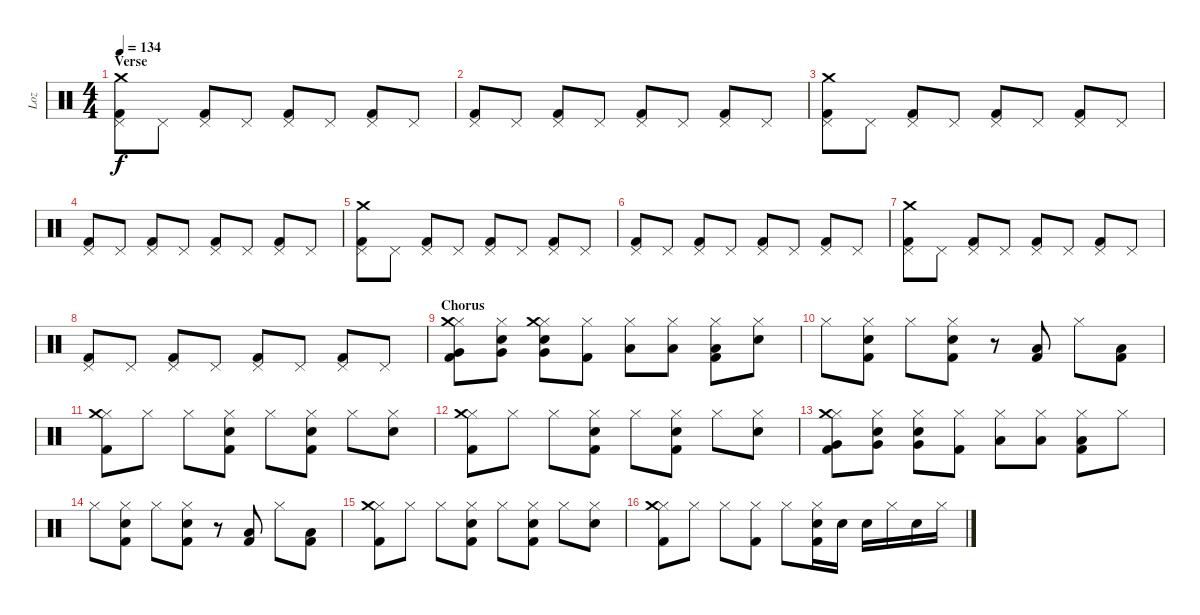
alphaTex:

\track ("Loz" "Loz") {instrument percussion}
\staff {score}
\articulation defaults
\ts (4 4)
\section ("" "Verse")
\tempo 134
\clef neutral
\ks c
("Crash medium (hit)" "Pedal Hi-Hat (hit)" "Kick (hit) 2").8{dy f} "Pedal Hi-Hat (hit)".8 ("Pedal Hi-Hat (hit)" "Kick (hit) 2").8 "Pedal Hi-Hat (hit)".8 ("Pedal Hi-Hat (hit)" "Kick (hit) 2").8 "Pedal Hi-Hat (hit)".8 ("Pedal Hi-Hat (hit)" "Kick (hit) 2").8 "Pedal Hi-Hat (hit)".8 |
("Pedal Hi-Hat (hit)" "Kick (hit) 2").8 "Pedal Hi-Hat (hit)".8 ("Pedal Hi-Hat (hit)" "Kick (hit) 2").8 "Pedal Hi-Hat (hit)".8 ("Pedal Hi-Hat (hit)" "Kick (hit) 2").8 "Pedal Hi-Hat (hit)".8 ("Pedal Hi-Hat (hit)" "Kick (hit) 2").8 "Pedal Hi-Hat (hit)".8 |
("Crash medium (hit)" "Pedal Hi-Hat (hit)" "Kick (hit) 2").8 "Pedal Hi-Hat (hit)".8 ("Pedal Hi-Hat (hit)" "Kick (hit) 2").8 "Pedal Hi-Hat (hit)".8 ("Pedal Hi-Hat (hit)" "Kick (hit) 2").8 "Pedal Hi-Hat (hit)".8 ("Pedal Hi-Hat (hit)" "Kick (hit) 2").8 "Pedal Hi-Hat (hit)".8 |
("Pedal Hi-Hat (hit)" "Kick (hit) 2").8 "Pedal Hi-Hat (hit)".8 ("Pedal Hi-Hat (hit)" "Kick (hit) 2").8 "Pedal Hi-Hat (hit)".8 ("Pedal Hi-Hat (hit)" "Kick (hit) 2").8 "Pedal Hi-Hat (hit)".8 ("Pedal Hi-Hat (hit)" "Kick (hit) 2").8 "Pedal Hi-Hat (hit)".8 |
("Crash medium (hit)" "Pedal Hi-Hat (hit)" "Kick (hit) 2").8 "Pedal Hi-Hat (hit)".8 ("Pedal Hi-Hat (hit)" "Kick (hit) 2").8 "Pedal Hi-Hat (hit)".8 ("Pedal Hi-Hat (hit)" "Kick (hit) 2").8 "Pedal Hi-Hat (hit)".8 ("Pedal Hi-Hat (hit)" "Kick (hit) 2").8 "Pedal Hi-Hat (hit)".8 |
("Pedal Hi-Hat (hit)" "Kick (hit) 2").8 "Pedal Hi-Hat (hit)".8 ("Pedal Hi-Hat (hit)" "Kick (hit) 2").8 "Pedal Hi-Hat (hit)".8 ("Pedal Hi-Hat (hit)" "Kick (hit) 2").8 "Pedal Hi-Hat (hit)".8 ("Pedal Hi-Hat (hit)" "Kick (hit) 2").8 "Pedal Hi-Hat (hit)".8 |
("Crash medium (hit)" "Pedal Hi-Hat (hit)" "Kick (hit) 2").8 "Pedal Hi-Hat (hit)".8 ("Pedal Hi-Hat (hit)" "Kick (hit) 2").8 "Pedal Hi-Hat (hit)".8 ("Pedal Hi-Hat (hit)" "Kick (hit) 2").8 "Pedal Hi-Hat (hit)".8 ("Pedal Hi-Hat (hit)" "Kick (hit) 2").8 "Pedal Hi-Hat (hit)".8 |
("Pedal Hi-Hat (hit)" "Kick (hit) 2").8 "Pedal Hi-Hat (hit)".8 ("Pedal Hi-Hat (hit)" "Kick (hit) 2").8 "Pedal Hi-Hat (hit)".8 ("Pedal Hi-Hat (hit)" "Kick (hit) 2").8 "Pedal Hi-Hat (hit)".8 ("Pedal Hi-Hat (hit)" "Kick (hit) 2").8 "Pedal Hi-Hat (hit)".8 |
\section ("" "Chorus")
("Hi-Hat (closed)" "Crash medium (hit)" "Very Low Tom (hit)" "Kick (hit) 2").8 ("Hi-Hat (closed)" "Electric Snare (hit)" "Very Low Tom (hit)").8 ("Hi-Hat (closed)" "Crash medium (hit)" "Electric Snare (hit)" "Very Low Tom (hit)").8 ("Hi-Hat (closed)" "Kick (hit) 2").8 ("Hi-Hat (closed)" "Low Floor Tom (hit)").8 ("Hi-Hat (closed)" "Low Floor Tom (hit)").8 ("Hi-Hat (closed)" "Low Floor Tom (hit)" "Kick (hit) 2").8 ("Hi-Hat (closed)" "Electric Snare (hit)").8 |
"Hi-Hat (closed)".8 ("Hi-Hat (closed)" "Electric Snare (hit)" "Kick (hit) 2").8 "Hi-Hat (closed)".8 ("Hi-Hat (closed)" "Electric Snare (hit)" "Kick (hit) 2").8 r.8 ("Low Floor Tom (hit)" "Kick (hit) 2").8 "Hi-Hat (closed)".8 ("Low Floor Tom (hit)" "Kick (hit) 2").8 |
("Hi-Hat (closed)" "Crash medium (hit)" "Kick (hit) 2").8 "Hi-Hat (closed)".8 "Hi-Hat (closed)".8 ("Hi-Hat (closed)" "Electric Snare (hit)" "Kick (hit) 2").8 "Hi-Hat (closed)".8 ("Hi-Hat (closed)" "Electric Snare (hit)" "Kick (hit) 2").8 "Hi-Hat (closed)".8 ("Hi-Hat (closed)" "Electric Snare (hit)").8 |
("Hi-Hat (closed)" "Crash medium (hit)" "Kick (hit) 2").8 "Hi-Hat (closed)".8 "Hi-Hat (closed)".8 ("Hi-Hat (closed)" "Electric Snare (hit)" "Kick (hit) 2").8 "Hi-Hat (closed)".8 ("Hi-Hat (closed)" "Electric Snare (hit)" "Kick (hit) 2").8 "Hi-Hat (closed)".8 ("Hi-Hat (closed)" "Electric Snare (hit)").8 |
("Hi-Hat (closed)" "Crash medium (hit)" "Very Low Tom (hit)" "Kick (hit) 2").8 ("Hi-Hat (closed)" "Electric Snare (hit)" "Very Low Tom (hit)").8 ("Hi-Hat (closed)" "Electric Snare (hit)" "Very Low Tom (hit)").8 ("Hi-Hat (closed)" "Kick (hit) 2").8 ("Hi-Hat (closed)" "Low Floor Tom (hit)").8 ("Hi-Hat (closed)" "Low Floor Tom (hit)").8 ("Hi-Hat (closed)" "Low Floor Tom (hit)" "Kick (hit) 2").8 "Hi-Hat (closed)".8 |
"Hi-Hat (closed)".8 ("Hi-Hat (closed)" "Electric Snare (hit)" "Kick (hit) 2").8 "Hi-Hat (closed)".8 ("Hi-Hat (closed)" "Electric Snare (hit)" "Kick (hit) 2").8 r.8 ("Low Floor Tom (hit)" "Kick (hit) 2").8 "Hi-Hat (closed)".8 ("Low Floor Tom (hit)" "Kick (hit) 2").8 |
("Hi-Hat (closed)" "Crash medium (hit)" "Kick (hit) 2").8 "Hi-Hat (closed)".8 "Hi-Hat (closed)".8 ("Hi-Hat (closed)" "Electric Snare (hit)" "Kick (hit) 2").8 "Hi-Hat (closed)".8 ("Hi-Hat (closed)" "Electric Snare (hit)" "Kick (hit) 2").8 "Hi-Hat (closed)".8 ("Hi-Hat (closed)" "Electric Snare (hit)").8 |
("Hi-Hat (closed)" "Crash medium (hit)" "Kick (hit) 2").8 "Hi-Hat (closed)".8 "Hi-Hat (closed)".8 ("Hi-Hat (closed)" "Kick (hit) 2").8 "Hi-Hat (closed)".8 ("Hi-Hat (closed)" "Electric Snare (hit)" "Kick (hit) 2").16 "Electric Snare (hit)".16 "Electric Snare (hit)".16 "Hi-Hat (closed)".16 "Electric Snare (hit)".16 "Hi-Hat (closed)".16
